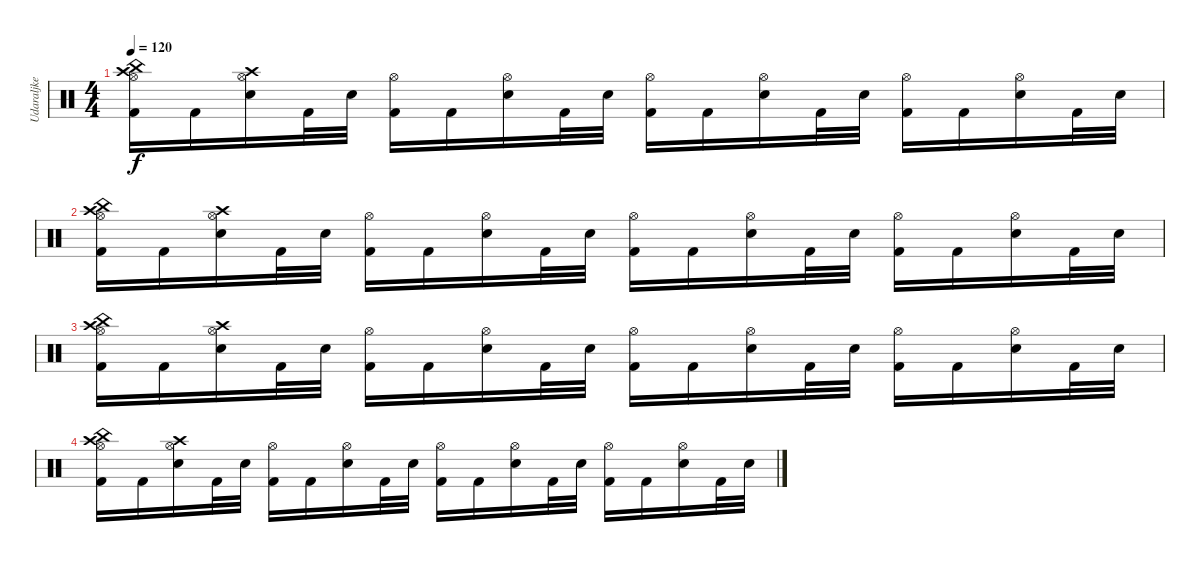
\track ("Udaraljke" "Udaraljke") {instrument percussion}
\staff {score}
\articulation defaults
\ts (4 4)
\tempo 120
\clef neutral
\ks c
("China (hit)" "Crash high (hit)" "Hi-Hat (open)" "Kick (hit) 2").16{dy f} "Kick (hit) 2".16 ("Crash high (hit)" "Hi-Hat (open)" "Electric Snare (hit)").16 "Kick (hit) 2".32 "Electric Snare (hit)".32 ("Hi-Hat (open)" "Kick (hit) 2").16 "Kick (hit) 2".16 ("Hi-Hat (open)" "Electric Snare (hit)").16 "Kick (hit) 2".32 "Electric Snare (hit)".32 ("Hi-Hat (open)" "Kick (hit) 2").16 "Kick (hit) 2".16 ("Hi-Hat (open)" "Electric Snare (hit)").16 "Kick (hit) 2".32 "Electric Snare (hit)".32 ("Hi-Hat (open)" "Kick (hit) 2").16 "Kick (hit) 2".16 ("Hi-Hat (open)" "Electric Snare (hit)").16 "Kick (hit) 2".32 "Electric Snare (hit)".32 |
("China (hit)" "Crash high (hit)" "Hi-Hat (open)" "Kick (hit) 2").16 "Kick (hit) 2".16 ("Crash high (hit)" "Hi-Hat (open)" "Electric Snare (hit)").16 "Kick (hit) 2".32 "Electric Snare (hit)".32 ("Hi-Hat (open)" "Kick (hit) 2").16 "Kick (hit) 2".16 ("Hi-Hat (open)" "Electric Snare (hit)").16 "Kick (hit) 2".32 "Electric Snare (hit)".32 ("Hi-Hat (open)" "Kick (hit) 2").16 "Kick (hit) 2".16 ("Hi-Hat (open)" "Electric Snare (hit)").16 "Kick (hit) 2".32 "Electric Snare (hit)".32 ("Hi-Hat (open)" "Kick (hit) 2").16 "Kick (hit) 2".16 ("Hi-Hat (open)" "Electric Snare (hit)").16 "Kick (hit) 2".32 "Electric Snare (hit)".32 |
("China (hit)" "Crash high (hit)" "Hi-Hat (open)" "Kick (hit) 2").16 "Kick (hit) 2".16 ("Crash high (hit)" "Hi-Hat (open)" "Electric Snare (hit)").16 "Kick (hit) 2".32 "Electric Snare (hit)".32 ("Hi-Hat (open)" "Kick (hit) 2").16 "Kick (hit) 2".16 ("Hi-Hat (open)" "Electric Snare (hit)").16 "Kick (hit) 2".32 "Electric Snare (hit)".32 ("Hi-Hat (open)" "Kick (hit) 2").16 "Kick (hit) 2".16 ("Hi-Hat (open)" "Electric Snare (hit)").16 "Kick (hit) 2".32 "Electric Snare (hit)".32 ("Hi-Hat (open)" "Kick (hit) 2").16 "Kick (hit) 2".16 ("Hi-Hat (open)" "Electric Snare (hit)").16 "Kick (hit) 2".32 "Electric Snare (hit)".32 |
("China (hit)" "Crash high (hit)" "Hi-Hat (open)" "Kick (hit) 2").16 "Kick (hit) 2".16 ("Crash high (hit)" "Hi-Hat (open)" "Electric Snare (hit)").16 "Kick (hit) 2".32 "Electric Snare (hit)".32 ("Hi-Hat (open)" "Kick (hit) 2").16 "Kick (hit) 2".16 ("Hi-Hat (open)" "Electric Snare (hit)").16 "Kick (hit) 2".32 "Electric Snare (hit)".32 ("Hi-Hat (open)" "Kick (hit) 2").16 "Kick (hit) 2".16 ("Hi-Hat (open)" "Electric Snare (hit)").16 "Kick (hit) 2".32 "Electric Snare (hit)".32 ("Hi-Hat (open)" "Kick (hit) 2").16 "Kick (hit) 2".16 ("Hi-Hat (open)" "Electric Snare (hit)").16 "Kick (hit) 2".32 "Electric Snare (hit)".32
